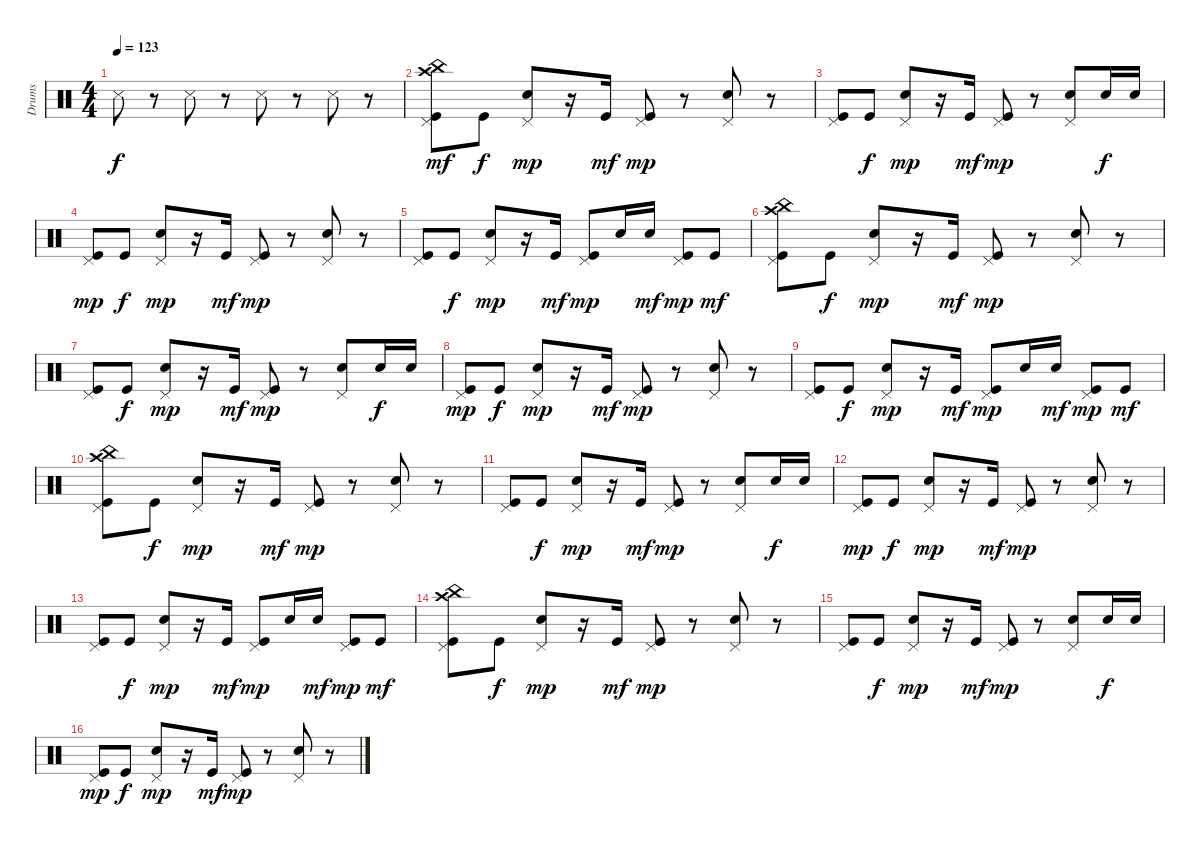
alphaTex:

\track ("Drums" "Drums") {instrument percussion}
\staff {score}
\articulation defaults
\ts (4 4)
\tempo 123
\clef neutral
\ks c "Snare (side stick) 3".8{dy f}
r.8 "Snare (side stick) 3".8 r.8 "Snare (side stick) 3".8 r.8 "Snare (side stick) 3".8 r.8 |
("Pedal Hi-Hat (hit)" "Kick (hit)" "Crash high (hit)" "China (hit)").8{dy mf} "Kick (hit)".8{dy f} ("Pedal Hi-Hat (hit)" "Electric Snare (hit)").8{dy mp} r.16 "Kick (hit)".16{dy mf} ("Pedal Hi-Hat (hit)" "Kick (hit)").8{dy mp} r.8 ("Pedal Hi-Hat (hit)" "Electric Snare (hit)").8 r.8 |
("Pedal Hi-Hat (hit)" "Kick (hit)").8 "Kick (hit)".8{dy f} ("Electric Snare (hit)" "Pedal Hi-Hat (hit)").8{dy mp} r.16 "Kick (hit)".16{dy mf} ("Pedal Hi-Hat (hit)" "Kick (hit)").8{dy mp} r.8 ("Pedal Hi-Hat (hit)" "Electric Snare (hit)").8 "Electric Snare (hit)".16{dy f} "Electric Snare (hit)".16 |
("Pedal Hi-Hat (hit)" "Kick (hit)").8{dy mp} "Kick (hit)".8{dy f} ("Pedal Hi-Hat (hit)" "Electric Snare (hit)").8{dy mp} r.16 "Kick (hit)".16{dy mf} ("Pedal Hi-Hat (hit)" "Kick (hit)").8{dy mp} r.8 ("Pedal Hi-Hat (hit)" "Electric Snare (hit)").8 r.8 |
("Pedal Hi-Hat (hit)" "Kick (hit)").8 "Kick (hit)".8{dy f} ("Pedal Hi-Hat (hit)" "Electric Snare (hit)").8{dy mp} r.16 "Kick (hit)".16{dy mf} ("Pedal Hi-Hat (hit)" "Kick (hit)").8{dy mp} "Electric Snare (hit)".16 "Electric Snare (hit)".16{dy mf} ("Kick (hit)" "Pedal Hi-Hat (hit)").8{dy mp} "Kick (hit)".8{dy mf} |
("Pedal Hi-Hat (hit)" "Kick (hit)" "Crash high (hit)" "China (hit)").8 "Kick (hit)".8{dy f} ("Pedal Hi-Hat (hit)" "Electric Snare (hit)").8{dy mp} r.16 "Kick (hit)".16{dy mf} ("Pedal Hi-Hat (hit)" "Kick (hit)").8{dy mp} r.8 ("Pedal Hi-Hat (hit)" "Electric Snare (hit)").8 r.8 |
("Pedal Hi-Hat (hit)" "Kick (hit)").8 "Kick (hit)".8{dy f} ("Electric Snare (hit)" "Pedal Hi-Hat (hit)").8{dy mp} r.16 "Kick (hit)".16{dy mf} ("Pedal Hi-Hat (hit)" "Kick (hit)").8{dy mp} r.8 ("Pedal Hi-Hat (hit)" "Electric Snare (hit)").8 "Electric Snare (hit)".16{dy f} "Electric Snare (hit)".16 |
("Pedal Hi-Hat (hit)" "Kick (hit)").8{dy mp} "Kick (hit)".8{dy f} ("Pedal Hi-Hat (hit)" "Electric Snare (hit)").8{dy mp} r.16 "Kick (hit)".16{dy mf} ("Pedal Hi-Hat (hit)" "Kick (hit)").8{dy mp} r.8 ("Pedal Hi-Hat (hit)" "Electric Snare (hit)").8 r.8 |
("Pedal Hi-Hat (hit)" "Kick (hit)").8 "Kick (hit)".8{dy f} ("Pedal Hi-Hat (hit)" "Electric Snare (hit)").8{dy mp} r.16 "Kick (hit)".16{dy mf} ("Pedal Hi-Hat (hit)" "Kick (hit)").8{dy mp} "Electric Snare (hit)".16 "Electric Snare (hit)".16{dy mf} ("Kick (hit)" "Pedal Hi-Hat (hit)").8{dy mp} "Kick (hit)".8{dy mf} |
("Pedal Hi-Hat (hit)" "Kick (hit)" "Crash high (hit)" "China (hit)").8 "Kick (hit)".8{dy f} ("Pedal Hi-Hat (hit)" "Electric Snare (hit)").8{dy mp} r.16 "Kick (hit)".16{dy mf} ("Pedal Hi-Hat (hit)" "Kick (hit)").8{dy mp} r.8 ("Pedal Hi-Hat (hit)" "Electric Snare (hit)").8 r.8 |
("Pedal Hi-Hat (hit)" "Kick (hit)").8 "Kick (hit)".8{dy f} ("Electric Snare (hit)" "Pedal Hi-Hat (hit)").8{dy mp} r.16 "Kick (hit)".16{dy mf} ("Pedal Hi-Hat (hit)" "Kick (hit)").8{dy mp} r.8 ("Pedal Hi-Hat (hit)" "Electric Snare (hit)").8 "Electric Snare (hit)".16{dy f} "Electric Snare (hit)".16 |
("Pedal Hi-Hat (hit)" "Kick (hit)").8{dy mp} "Kick (hit)".8{dy f} ("Pedal Hi-Hat (hit)" "Electric Snare (hit)").8{dy mp} r.16 "Kick (hit)".16{dy mf} ("Pedal Hi-Hat (hit)" "Kick (hit)").8{dy mp} r.8 ("Pedal Hi-Hat (hit)" "Electric Snare (hit)").8 r.8 |
("Pedal Hi-Hat (hit)" "Kick (hit)").8 "Kick (hit)".8{dy f} ("Pedal Hi-Hat (hit)" "Electric Snare (hit)").8{dy mp} r.16 "Kick (hit)".16{dy mf} ("Pedal Hi-Hat (hit)" "Kick (hit)").8{dy mp} "Electric Snare (hit)".16 "Electric Snare (hit)".16{dy mf} ("Kick (hit)" "Pedal Hi-Hat (hit)").8{dy mp} "Kick (hit)".8{dy mf} |
("Pedal Hi-Hat (hit)" "Kick (hit)" "Crash high (hit)" "China (hit)").8 "Kick (hit)".8{dy f} ("Pedal Hi-Hat (hit)" "Electric Snare (hit)").8{dy mp} r.16 "Kick (hit)".16{dy mf} ("Pedal Hi-Hat (hit)" "Kick (hit)").8{dy mp} r.8 ("Pedal Hi-Hat (hit)" "Electric Snare (hit)").8 r.8 |
("Pedal Hi-Hat (hit)" "Kick (hit)").8 "Kick (hit)".8{dy f} ("Electric Snare (hit)" "Pedal Hi-Hat (hit)").8{dy mp} r.16 "Kick (hit)".16{dy mf} ("Pedal Hi-Hat (hit)" "Kick (hit)").8{dy mp} r.8 ("Pedal Hi-Hat (hit)" "Electric Snare (hit)").8 "Electric Snare (hit)".16{dy f} "Electric Snare (hit)".16 |
("Pedal Hi-Hat (hit)" "Kick (hit)").8{dy mp} "Kick (hit)".8{dy f} ("Pedal Hi-Hat (hit)" "Electric Snare (hit)").8{dy mp} r.16 "Kick (hit)".16{dy mf} ("Pedal Hi-Hat (hit)" "Kick (hit)").8{dy mp} r.8 ("Pedal Hi-Hat (hit)" "Electric Snare (hit)").8 r.8
